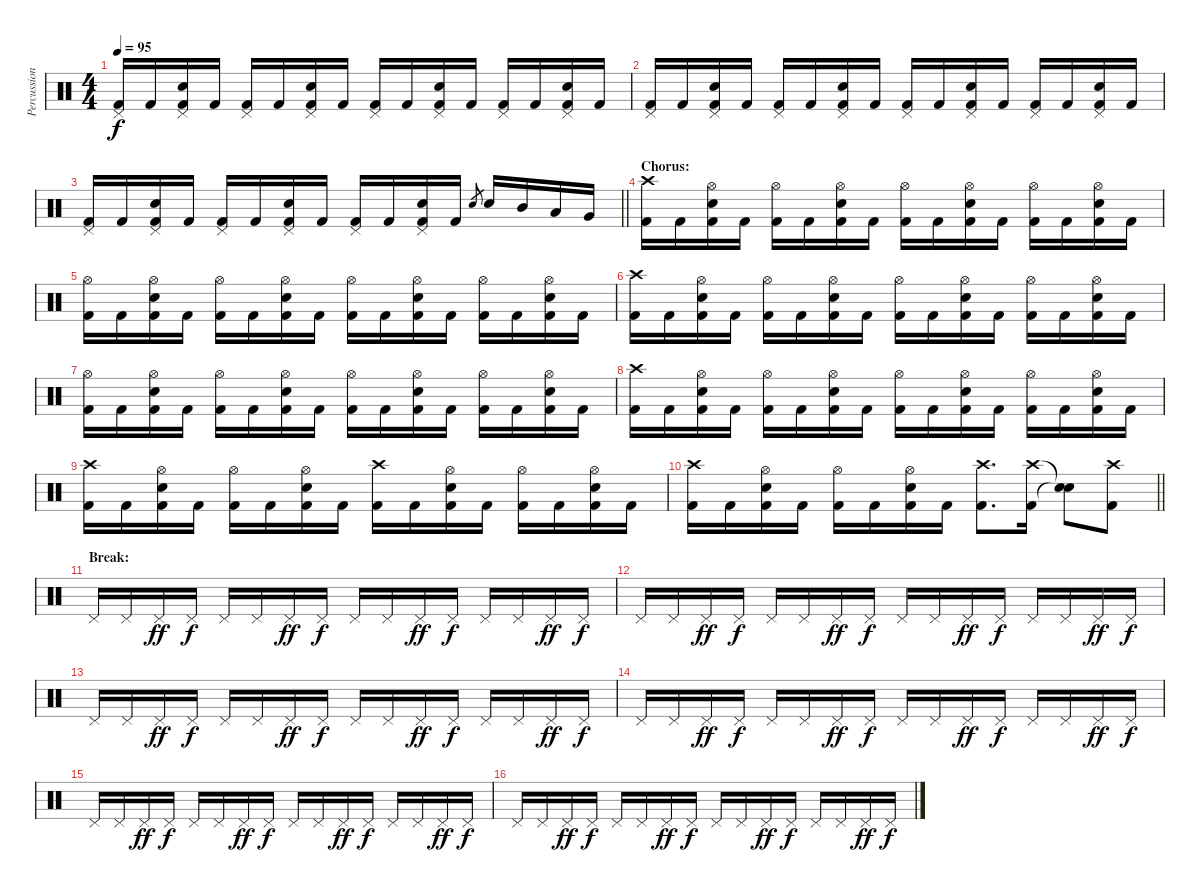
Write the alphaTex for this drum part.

\track ("Percussion" "Percussion") {instrument percussion}
\staff {score}
\articulation defaults
\ts (4 4)
\tempo 95
\clef neutral
\ks c
("Pedal Hi-Hat (hit)" "Kick (hit) 2").16{dy f} "Kick (hit) 2".16 ("Pedal Hi-Hat (hit)" "Electric Snare (hit)" "Kick (hit) 2").16 "Kick (hit) 2".16 ("Pedal Hi-Hat (hit)" "Kick (hit) 2").16 "Kick (hit) 2".16 ("Pedal Hi-Hat (hit)" "Electric Snare (hit)" "Kick (hit) 2").16 "Kick (hit) 2".16 ("Pedal Hi-Hat (hit)" "Kick (hit) 2").16 "Kick (hit) 2".16 ("Pedal Hi-Hat (hit)" "Electric Snare (hit)" "Kick (hit) 2").16 "Kick (hit) 2".16 ("Pedal Hi-Hat (hit)" "Kick (hit) 2").16 "Kick (hit) 2".16 ("Pedal Hi-Hat (hit)" "Electric Snare (hit)" "Kick (hit) 2").16 "Kick (hit) 2".16 |
("Pedal Hi-Hat (hit)" "Kick (hit) 2").16 "Kick (hit) 2".16 ("Pedal Hi-Hat (hit)" "Electric Snare (hit)" "Kick (hit) 2").16 "Kick (hit) 2".16 ("Pedal Hi-Hat (hit)" "Kick (hit) 2").16 "Kick (hit) 2".16 ("Pedal Hi-Hat (hit)" "Electric Snare (hit)" "Kick (hit) 2").16 "Kick (hit) 2".16 ("Pedal Hi-Hat (hit)" "Kick (hit) 2").16 "Kick (hit) 2".16 ("Pedal Hi-Hat (hit)" "Electric Snare (hit)" "Kick (hit) 2").16 "Kick (hit) 2".16 ("Pedal Hi-Hat (hit)" "Kick (hit) 2").16 "Kick (hit) 2".16 ("Pedal Hi-Hat (hit)" "Electric Snare (hit)" "Kick (hit) 2").16 "Kick (hit) 2".16 |
\barLineRight lightlight
("Pedal Hi-Hat (hit)" "Kick (hit) 2").16 "Kick (hit) 2".16 ("Pedal Hi-Hat (hit)" "Electric Snare (hit)" "Kick (hit) 2").16 "Kick (hit) 2".16 ("Pedal Hi-Hat (hit)" "Kick (hit) 2").16 "Kick (hit) 2".16 ("Pedal Hi-Hat (hit)" "Electric Snare (hit)" "Kick (hit) 2").16 "Kick (hit) 2".16 ("Pedal Hi-Hat (hit)" "Kick (hit) 2").16 "Kick (hit) 2".16 ("Pedal Hi-Hat (hit)" "Electric Snare (hit)" "Kick (hit) 2").16 "Kick (hit) 2".16 "Electric Snare (hit)".8{gr} "Electric Snare (hit)".16 "Mid Tom (hit)".16 "Low Tom (hit)".16 "Very Low Tom (hit)".16 |
\section ("" "Chorus:")
("Crash high (hit)" "Kick (hit) 2").16 "Kick (hit) 2".16 ("Hi-Hat (open)" "Electric Snare (hit)" "Kick (hit) 2").16 "Kick (hit) 2".16 ("Hi-Hat (open)" "Kick (hit) 2").16 "Kick (hit) 2".16 ("Hi-Hat (open)" "Electric Snare (hit)" "Kick (hit) 2").16 "Kick (hit) 2".16 ("Hi-Hat (open)" "Kick (hit) 2").16 "Kick (hit) 2".16 ("Hi-Hat (open)" "Electric Snare (hit)" "Kick (hit) 2").16 "Kick (hit) 2".16 ("Hi-Hat (open)" "Kick (hit) 2").16 "Kick (hit) 2".16 ("Hi-Hat (open)" "Electric Snare (hit)" "Kick (hit) 2").16 "Kick (hit) 2".16 |
("Hi-Hat (open)" "Kick (hit) 2").16 "Kick (hit) 2".16 ("Hi-Hat (open)" "Electric Snare (hit)" "Kick (hit) 2").16 "Kick (hit) 2".16 ("Hi-Hat (open)" "Kick (hit) 2").16 "Kick (hit) 2".16 ("Hi-Hat (open)" "Electric Snare (hit)" "Kick (hit) 2").16 "Kick (hit) 2".16 ("Hi-Hat (open)" "Kick (hit) 2").16 "Kick (hit) 2".16 ("Hi-Hat (open)" "Electric Snare (hit)" "Kick (hit) 2").16 "Kick (hit) 2".16 ("Hi-Hat (open)" "Kick (hit) 2").16 "Kick (hit) 2".16 ("Hi-Hat (open)" "Electric Snare (hit)" "Kick (hit) 2").16 "Kick (hit) 2".16 |
("Crash high (hit)" "Kick (hit) 2").16 "Kick (hit) 2".16 ("Hi-Hat (open)" "Electric Snare (hit)" "Kick (hit) 2").16 "Kick (hit) 2".16 ("Hi-Hat (open)" "Kick (hit) 2").16 "Kick (hit) 2".16 ("Hi-Hat (open)" "Electric Snare (hit)" "Kick (hit) 2").16 "Kick (hit) 2".16 ("Hi-Hat (open)" "Kick (hit) 2").16 "Kick (hit) 2".16 ("Hi-Hat (open)" "Electric Snare (hit)" "Kick (hit) 2").16 "Kick (hit) 2".16 ("Hi-Hat (open)" "Kick (hit) 2").16 "Kick (hit) 2".16 ("Hi-Hat (open)" "Electric Snare (hit)" "Kick (hit) 2").16 "Kick (hit) 2".16 |
("Hi-Hat (open)" "Kick (hit) 2").16 "Kick (hit) 2".16 ("Hi-Hat (open)" "Electric Snare (hit)" "Kick (hit) 2").16 "Kick (hit) 2".16 ("Hi-Hat (open)" "Kick (hit) 2").16 "Kick (hit) 2".16 ("Hi-Hat (open)" "Electric Snare (hit)" "Kick (hit) 2").16 "Kick (hit) 2".16 ("Hi-Hat (open)" "Kick (hit) 2").16 "Kick (hit) 2".16 ("Hi-Hat (open)" "Electric Snare (hit)" "Kick (hit) 2").16 "Kick (hit) 2".16 ("Hi-Hat (open)" "Kick (hit) 2").16 "Kick (hit) 2".16 ("Hi-Hat (open)" "Electric Snare (hit)" "Kick (hit) 2").16 "Kick (hit) 2".16 |
("Crash high (hit)" "Kick (hit) 2").16 "Kick (hit) 2".16 ("Hi-Hat (open)" "Electric Snare (hit)" "Kick (hit) 2").16 "Kick (hit) 2".16 ("Hi-Hat (open)" "Kick (hit) 2").16 "Kick (hit) 2".16 ("Hi-Hat (open)" "Electric Snare (hit)" "Kick (hit) 2").16 "Kick (hit) 2".16 ("Hi-Hat (open)" "Kick (hit) 2").16 "Kick (hit) 2".16 ("Hi-Hat (open)" "Electric Snare (hit)" "Kick (hit) 2").16 "Kick (hit) 2".16 ("Hi-Hat (open)" "Kick (hit) 2").16 "Kick (hit) 2".16 ("Hi-Hat (open)" "Electric Snare (hit)" "Kick (hit) 2").16 "Kick (hit) 2".16 |
("Crash high (hit)" "Kick (hit) 2").16 "Kick (hit) 2".16 ("Hi-Hat (open)" "Electric Snare (hit)" "Kick (hit) 2").16 "Kick (hit) 2".16 ("Hi-Hat (open)" "Kick (hit) 2").16 "Kick (hit) 2".16 ("Hi-Hat (open)" "Electric Snare (hit)" "Kick (hit) 2").16 "Kick (hit) 2".16 ("Crash high (hit)" "Kick (hit) 2").16 "Kick (hit) 2".16 ("Hi-Hat (open)" "Electric Snare (hit)" "Kick (hit) 2").16 "Kick (hit) 2".16 ("Hi-Hat (open)" "Kick (hit) 2").16 "Kick (hit) 2".16 ("Hi-Hat (open)" "Electric Snare (hit)" "Kick (hit) 2").16 "Kick (hit) 2".16 |
\barLineRight lightlight
("Crash high (hit)" "Kick (hit) 2").16 "Kick (hit) 2".16 ("Hi-Hat (open)" "Electric Snare (hit)" "Kick (hit) 2").16 "Kick (hit) 2".16 ("Hi-Hat (open)" "Kick (hit) 2").16 "Kick (hit) 2".16 ("Hi-Hat (open)" "Electric Snare (hit)" "Kick (hit) 2").16 "Kick (hit) 2".16 ("Crash high (hit)" "Kick (hit) 2").8{d} ("Crash high (hit)" "Kick (hit) 2").16 ("Snare (hit)"{t} "Snare (hit)"{t}).8 ("Crash high (hit)" "Kick (hit) 2").8 |
\section ("" "Break:")
"Pedal Hi-Hat (hit)".16 "Pedal Hi-Hat (hit)".16 "Pedal Hi-Hat (hit)".16{dy ff} "Pedal Hi-Hat (hit)".16{dy f} "Pedal Hi-Hat (hit)".16 "Pedal Hi-Hat (hit)".16 "Pedal Hi-Hat (hit)".16{dy ff} "Pedal Hi-Hat (hit)".16{dy f} "Pedal Hi-Hat (hit)".16 "Pedal Hi-Hat (hit)".16 "Pedal Hi-Hat (hit)".16{dy ff} "Pedal Hi-Hat (hit)".16{dy f} "Pedal Hi-Hat (hit)".16 "Pedal Hi-Hat (hit)".16 "Pedal Hi-Hat (hit)".16{dy ff} "Pedal Hi-Hat (hit)".16{dy f} |
"Pedal Hi-Hat (hit)".16 "Pedal Hi-Hat (hit)".16 "Pedal Hi-Hat (hit)".16{dy ff} "Pedal Hi-Hat (hit)".16{dy f} "Pedal Hi-Hat (hit)".16 "Pedal Hi-Hat (hit)".16 "Pedal Hi-Hat (hit)".16{dy ff} "Pedal Hi-Hat (hit)".16{dy f} "Pedal Hi-Hat (hit)".16 "Pedal Hi-Hat (hit)".16 "Pedal Hi-Hat (hit)".16{dy ff} "Pedal Hi-Hat (hit)".16{dy f} "Pedal Hi-Hat (hit)".16 "Pedal Hi-Hat (hit)".16 "Pedal Hi-Hat (hit)".16{dy ff} "Pedal Hi-Hat (hit)".16{dy f} |
"Pedal Hi-Hat (hit)".16 "Pedal Hi-Hat (hit)".16 "Pedal Hi-Hat (hit)".16{dy ff} "Pedal Hi-Hat (hit)".16{dy f} "Pedal Hi-Hat (hit)".16 "Pedal Hi-Hat (hit)".16 "Pedal Hi-Hat (hit)".16{dy ff} "Pedal Hi-Hat (hit)".16{dy f} "Pedal Hi-Hat (hit)".16 "Pedal Hi-Hat (hit)".16 "Pedal Hi-Hat (hit)".16{dy ff} "Pedal Hi-Hat (hit)".16{dy f} "Pedal Hi-Hat (hit)".16 "Pedal Hi-Hat (hit)".16 "Pedal Hi-Hat (hit)".16{dy ff} "Pedal Hi-Hat (hit)".16{dy f} |
"Pedal Hi-Hat (hit)".16 "Pedal Hi-Hat (hit)".16 "Pedal Hi-Hat (hit)".16{dy ff} "Pedal Hi-Hat (hit)".16{dy f} "Pedal Hi-Hat (hit)".16 "Pedal Hi-Hat (hit)".16 "Pedal Hi-Hat (hit)".16{dy ff} "Pedal Hi-Hat (hit)".16{dy f} "Pedal Hi-Hat (hit)".16 "Pedal Hi-Hat (hit)".16 "Pedal Hi-Hat (hit)".16{dy ff} "Pedal Hi-Hat (hit)".16{dy f} "Pedal Hi-Hat (hit)".16 "Pedal Hi-Hat (hit)".16 "Pedal Hi-Hat (hit)".16{dy ff} "Pedal Hi-Hat (hit)".16{dy f} |
"Pedal Hi-Hat (hit)".16 "Pedal Hi-Hat (hit)".16 "Pedal Hi-Hat (hit)".16{dy ff} "Pedal Hi-Hat (hit)".16{dy f} "Pedal Hi-Hat (hit)".16 "Pedal Hi-Hat (hit)".16 "Pedal Hi-Hat (hit)".16{dy ff} "Pedal Hi-Hat (hit)".16{dy f} "Pedal Hi-Hat (hit)".16 "Pedal Hi-Hat (hit)".16 "Pedal Hi-Hat (hit)".16{dy ff} "Pedal Hi-Hat (hit)".16{dy f} "Pedal Hi-Hat (hit)".16 "Pedal Hi-Hat (hit)".16 "Pedal Hi-Hat (hit)".16{dy ff} "Pedal Hi-Hat (hit)".16{dy f} |
"Pedal Hi-Hat (hit)".16 "Pedal Hi-Hat (hit)".16 "Pedal Hi-Hat (hit)".16{dy ff} "Pedal Hi-Hat (hit)".16{dy f} "Pedal Hi-Hat (hit)".16 "Pedal Hi-Hat (hit)".16 "Pedal Hi-Hat (hit)".16{dy ff} "Pedal Hi-Hat (hit)".16{dy f} "Pedal Hi-Hat (hit)".16 "Pedal Hi-Hat (hit)".16 "Pedal Hi-Hat (hit)".16{dy ff} "Pedal Hi-Hat (hit)".16{dy f} "Pedal Hi-Hat (hit)".16 "Pedal Hi-Hat (hit)".16 "Pedal Hi-Hat (hit)".16{dy ff} "Pedal Hi-Hat (hit)".16{dy f}
